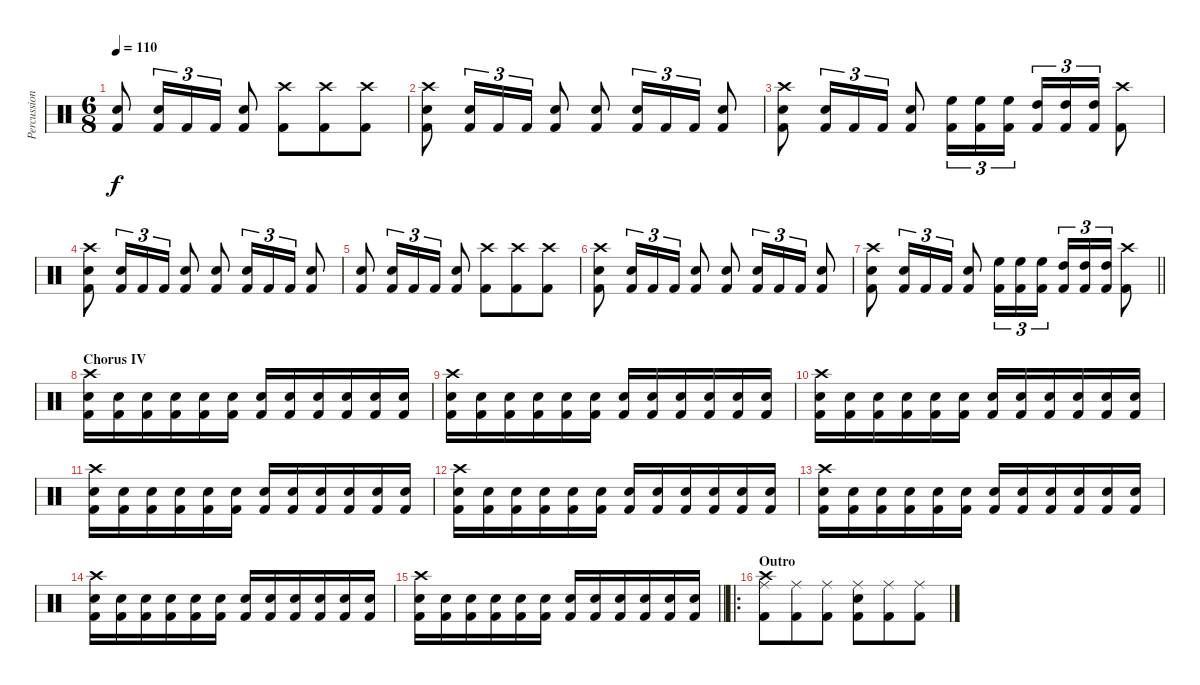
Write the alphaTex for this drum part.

\track ("Percussion" "Percussion") {instrument percussion}
\staff {score}
\articulation defaults
\ts (6 8)
\tempo 110
\clef neutral
\ks c
("Electric Snare (hit)" "Kick (hit) 2").8{dy f} ("Electric Snare (hit)" "Kick (hit) 2").16{tu (3 2)} "Kick (hit) 2".16{tu (3 2)} "Kick (hit) 2".16{tu (3 2)} ("Electric Snare (hit)" "Kick (hit) 2").8 ("Crash high (hit)" "Kick (hit) 2").8 ("Crash high (hit)" "Kick (hit) 2").8 ("Crash high (hit)" "Kick (hit) 2").8 |
("Crash high (hit)" "Electric Snare (hit)" "Kick (hit) 2").8 ("Electric Snare (hit)" "Kick (hit) 2").16{tu (3 2)} "Kick (hit) 2".16{tu (3 2)} "Kick (hit) 2".16{tu (3 2)} ("Electric Snare (hit)" "Kick (hit) 2").8 ("Electric Snare (hit)" "Kick (hit) 2").8 ("Electric Snare (hit)" "Kick (hit) 2").16{tu (3 2)} "Kick (hit) 2".16{tu (3 2)} "Kick (hit) 2".16{tu (3 2)} ("Electric Snare (hit)" "Kick (hit) 2").8 |
("Crash high (hit)" "Electric Snare (hit)" "Kick (hit) 2").8 ("Electric Snare (hit)" "Kick (hit) 2").16{tu (3 2)} "Kick (hit) 2".16{tu (3 2)} "Kick (hit) 2".16{tu (3 2)} ("Electric Snare (hit)" "Kick (hit) 2").8 ("High Floor Tom (hit)" "Kick (hit) 2").16{tu (3 2)} ("High Floor Tom (hit)" "Kick (hit) 2").16{tu (3 2)} ("High Floor Tom (hit)" "Kick (hit) 2").16{tu (3 2) beam splitsecondary} ("High Tom (hit)" "Kick (hit) 2").16{tu (3 2)} ("High Tom (hit)" "Kick (hit) 2").16{tu (3 2)} ("High Tom (hit)" "Kick (hit) 2").16{tu (3 2)} ("Crash high (hit)" "Kick (hit) 2").8 |
("Crash high (hit)" "Electric Snare (hit)" "Kick (hit) 2").8 ("Electric Snare (hit)" "Kick (hit) 2").16{tu (3 2)} "Kick (hit) 2".16{tu (3 2)} "Kick (hit) 2".16{tu (3 2)} ("Electric Snare (hit)" "Kick (hit) 2").8 ("Electric Snare (hit)" "Kick (hit) 2").8 ("Electric Snare (hit)" "Kick (hit) 2").16{tu (3 2)} "Kick (hit) 2".16{tu (3 2)} "Kick (hit) 2".16{tu (3 2)} ("Electric Snare (hit)" "Kick (hit) 2").8 |
("Electric Snare (hit)" "Kick (hit) 2").8 ("Electric Snare (hit)" "Kick (hit) 2").16{tu (3 2)} "Kick (hit) 2".16{tu (3 2)} "Kick (hit) 2".16{tu (3 2)} ("Electric Snare (hit)" "Kick (hit) 2").8 ("Crash high (hit)" "Kick (hit) 2").8 ("Crash high (hit)" "Kick (hit) 2").8 ("Crash high (hit)" "Kick (hit) 2").8 |
("Crash high (hit)" "Electric Snare (hit)" "Kick (hit) 2").8 ("Electric Snare (hit)" "Kick (hit) 2").16{tu (3 2)} "Kick (hit) 2".16{tu (3 2)} "Kick (hit) 2".16{tu (3 2)} ("Electric Snare (hit)" "Kick (hit) 2").8 ("Electric Snare (hit)" "Kick (hit) 2").8 ("Electric Snare (hit)" "Kick (hit) 2").16{tu (3 2)} "Kick (hit) 2".16{tu (3 2)} "Kick (hit) 2".16{tu (3 2)} ("Electric Snare (hit)" "Kick (hit) 2").8 |
\barLineRight lightlight
("Crash high (hit)" "Electric Snare (hit)" "Kick (hit) 2").8 ("Electric Snare (hit)" "Kick (hit) 2").16{tu (3 2)} "Kick (hit) 2".16{tu (3 2)} "Kick (hit) 2".16{tu (3 2)} ("Electric Snare (hit)" "Kick (hit) 2").8 ("High Floor Tom (hit)" "Kick (hit) 2").16{tu (3 2)} ("High Floor Tom (hit)" "Kick (hit) 2").16{tu (3 2)} ("High Floor Tom (hit)" "Kick (hit) 2").16{tu (3 2) beam splitsecondary} ("High Tom (hit)" "Kick (hit) 2").16{tu (3 2)} ("High Tom (hit)" "Kick (hit) 2").16{tu (3 2)} ("High Tom (hit)" "Kick (hit) 2").16{tu (3 2)} ("Crash high (hit)" "Kick (hit) 2").8 |
\section ("" "Chorus IV")
("Crash high (hit)" "Electric Snare (hit)" "Kick (hit) 2").16 ("Electric Snare (hit)" "Kick (hit) 2").16 ("Electric Snare (hit)" "Kick (hit) 2").16 ("Electric Snare (hit)" "Kick (hit) 2").16 ("Electric Snare (hit)" "Kick (hit) 2").16 ("Electric Snare (hit)" "Kick (hit) 2").16 ("Electric Snare (hit)" "Kick (hit) 2").16 ("Electric Snare (hit)" "Kick (hit) 2").16 ("Electric Snare (hit)" "Kick (hit) 2").16 ("Electric Snare (hit)" "Kick (hit) 2").16 ("Electric Snare (hit)" "Kick (hit) 2").16 ("Electric Snare (hit)" "Kick (hit) 2").16 |
("Crash high (hit)" "Electric Snare (hit)" "Kick (hit) 2").16 ("Electric Snare (hit)" "Kick (hit) 2").16 ("Electric Snare (hit)" "Kick (hit) 2").16 ("Electric Snare (hit)" "Kick (hit) 2").16 ("Electric Snare (hit)" "Kick (hit) 2").16 ("Electric Snare (hit)" "Kick (hit) 2").16 ("Electric Snare (hit)" "Kick (hit) 2").16 ("Electric Snare (hit)" "Kick (hit) 2").16 ("Electric Snare (hit)" "Kick (hit) 2").16 ("Electric Snare (hit)" "Kick (hit) 2").16 ("Electric Snare (hit)" "Kick (hit) 2").16 ("Electric Snare (hit)" "Kick (hit) 2").16 |
("Crash high (hit)" "Electric Snare (hit)" "Kick (hit) 2").16 ("Electric Snare (hit)" "Kick (hit) 2").16 ("Electric Snare (hit)" "Kick (hit) 2").16 ("Electric Snare (hit)" "Kick (hit) 2").16 ("Electric Snare (hit)" "Kick (hit) 2").16 ("Electric Snare (hit)" "Kick (hit) 2").16 ("Electric Snare (hit)" "Kick (hit) 2").16 ("Electric Snare (hit)" "Kick (hit) 2").16 ("Electric Snare (hit)" "Kick (hit) 2").16 ("Electric Snare (hit)" "Kick (hit) 2").16 ("Electric Snare (hit)" "Kick (hit) 2").16 ("Electric Snare (hit)" "Kick (hit) 2").16 |
("Crash high (hit)" "Electric Snare (hit)" "Kick (hit) 2").16 ("Electric Snare (hit)" "Kick (hit) 2").16 ("Electric Snare (hit)" "Kick (hit) 2").16 ("Electric Snare (hit)" "Kick (hit) 2").16 ("Electric Snare (hit)" "Kick (hit) 2").16 ("Electric Snare (hit)" "Kick (hit) 2").16 ("Electric Snare (hit)" "Kick (hit) 2").16 ("Electric Snare (hit)" "Kick (hit) 2").16 ("Electric Snare (hit)" "Kick (hit) 2").16 ("Electric Snare (hit)" "Kick (hit) 2").16 ("Electric Snare (hit)" "Kick (hit) 2").16 ("Electric Snare (hit)" "Kick (hit) 2").16 |
("Crash high (hit)" "Electric Snare (hit)" "Kick (hit) 2").16 ("Electric Snare (hit)" "Kick (hit) 2").16 ("Electric Snare (hit)" "Kick (hit) 2").16 ("Electric Snare (hit)" "Kick (hit) 2").16 ("Electric Snare (hit)" "Kick (hit) 2").16 ("Electric Snare (hit)" "Kick (hit) 2").16 ("Electric Snare (hit)" "Kick (hit) 2").16 ("Electric Snare (hit)" "Kick (hit) 2").16 ("Electric Snare (hit)" "Kick (hit) 2").16 ("Electric Snare (hit)" "Kick (hit) 2").16 ("Electric Snare (hit)" "Kick (hit) 2").16 ("Electric Snare (hit)" "Kick (hit) 2").16 |
("Crash high (hit)" "Electric Snare (hit)" "Kick (hit) 2").16 ("Electric Snare (hit)" "Kick (hit) 2").16 ("Electric Snare (hit)" "Kick (hit) 2").16 ("Electric Snare (hit)" "Kick (hit) 2").16 ("Electric Snare (hit)" "Kick (hit) 2").16 ("Electric Snare (hit)" "Kick (hit) 2").16 ("Electric Snare (hit)" "Kick (hit) 2").16 ("Electric Snare (hit)" "Kick (hit) 2").16 ("Electric Snare (hit)" "Kick (hit) 2").16 ("Electric Snare (hit)" "Kick (hit) 2").16 ("Electric Snare (hit)" "Kick (hit) 2").16 ("Electric Snare (hit)" "Kick (hit) 2").16 |
("Crash high (hit)" "Electric Snare (hit)" "Kick (hit) 2").16 ("Electric Snare (hit)" "Kick (hit) 2").16 ("Electric Snare (hit)" "Kick (hit) 2").16 ("Electric Snare (hit)" "Kick (hit) 2").16 ("Electric Snare (hit)" "Kick (hit) 2").16 ("Electric Snare (hit)" "Kick (hit) 2").16 ("Electric Snare (hit)" "Kick (hit) 2").16 ("Electric Snare (hit)" "Kick (hit) 2").16 ("Electric Snare (hit)" "Kick (hit) 2").16 ("Electric Snare (hit)" "Kick (hit) 2").16 ("Electric Snare (hit)" "Kick (hit) 2").16 ("Electric Snare (hit)" "Kick (hit) 2").16 |
\barLineRight lightlight
("Crash high (hit)" "Electric Snare (hit)" "Kick (hit) 2").16 ("Electric Snare (hit)" "Kick (hit) 2").16 ("Electric Snare (hit)" "Kick (hit) 2").16 ("Electric Snare (hit)" "Kick (hit) 2").16 ("Electric Snare (hit)" "Kick (hit) 2").16 ("Electric Snare (hit)" "Kick (hit) 2").16 ("Electric Snare (hit)" "Kick (hit) 2").16 ("Electric Snare (hit)" "Kick (hit) 2").16 ("Electric Snare (hit)" "Kick (hit) 2").16 ("Electric Snare (hit)" "Kick (hit) 2").16 ("Electric Snare (hit)" "Kick (hit) 2").16 ("Electric Snare (hit)" "Kick (hit) 2").16 |
\ro
\section ("" "Outro")
("Crash high (hit)" "Ride (middle)" "Kick (hit) 2").8 ("Ride (middle)" "Kick (hit) 2").8 ("Ride (middle)" "Kick (hit) 2").8 ("Ride (middle)" "Electric Snare (hit)" "Kick (hit) 2").8 ("Ride (middle)" "Kick (hit) 2").8 ("Ride (middle)" "Kick (hit) 2").8
